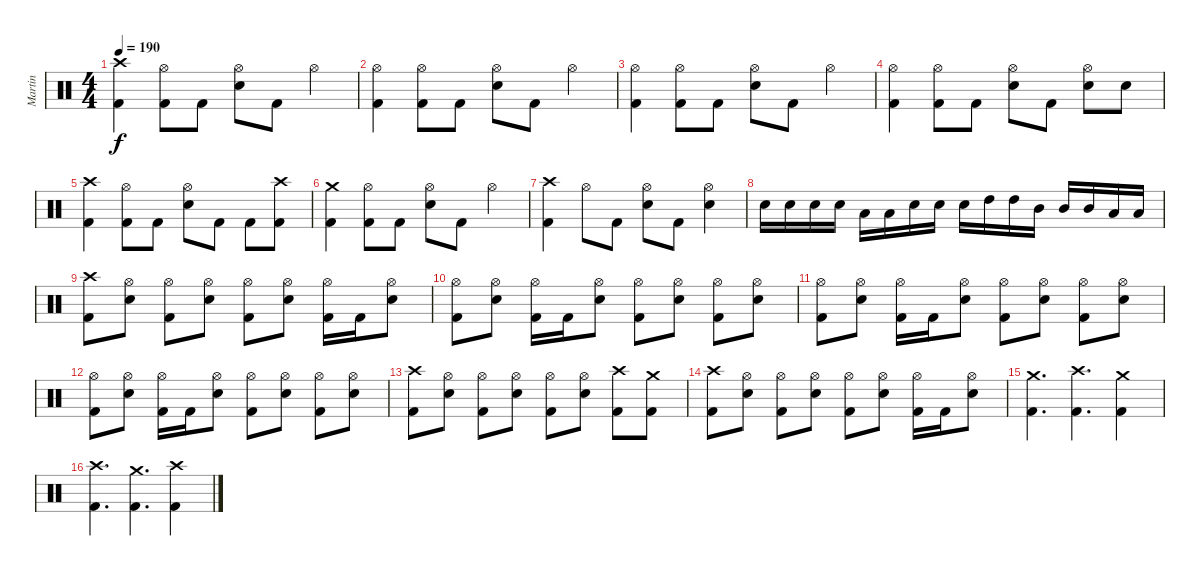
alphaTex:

\track ("Martin" "Martin") {instrument percussion}
\staff {score}
\articulation defaults
\ts (4 4)
\tempo 190
\clef neutral
\ks c
("Crash high (hit)" "Kick (hit) 2").4{dy f} ("Hi-Hat (open)" "Kick (hit) 2").8 "Kick (hit) 2".8 ("Hi-Hat (open)" "Snare (hit) 2").8 "Kick (hit) 2".8 "Hi-Hat (open)".4 |
("Hi-Hat (open)" "Kick (hit) 2").4 ("Hi-Hat (open)" "Kick (hit) 2").8 "Kick (hit) 2".8 ("Hi-Hat (open)" "Snare (hit) 2").8 "Kick (hit) 2".8 "Hi-Hat (open)".4 |
("Hi-Hat (open)" "Kick (hit) 2").4 ("Hi-Hat (open)" "Kick (hit) 2").8 "Kick (hit) 2".8 ("Hi-Hat (open)" "Snare (hit) 2").8 "Kick (hit) 2".8 "Hi-Hat (open)".4 |
("Hi-Hat (open)" "Kick (hit) 2").4 ("Hi-Hat (open)" "Kick (hit) 2").8 "Kick (hit) 2".8 ("Hi-Hat (open)" "Snare (hit) 2").8 "Kick (hit) 2".8 ("Hi-Hat (open)" "Snare (hit) 2").8 "Snare (hit) 2".8 |
("Crash high (hit)" "Kick (hit) 2").4 ("Hi-Hat (open)" "Kick (hit) 2").8 "Kick (hit) 2".8 ("Hi-Hat (open)" "Snare (hit) 2").8 "Kick (hit) 2".8 "Kick (hit) 2".8 ("Crash high (hit)" "Kick (hit) 2").8 |
("Crash medium (hit)" "Kick (hit) 2").4 ("Hi-Hat (open)" "Kick (hit) 2").8 "Kick (hit) 2".8 ("Hi-Hat (open)" "Snare (hit) 2").8 "Kick (hit) 2".8 "Hi-Hat (open)".4 |
("Crash high (hit)" "Kick (hit) 2").4 "Hi-Hat (open)".8 "Kick (hit) 2".8 ("Hi-Hat (open)" "Snare (hit) 2").8 "Kick (hit) 2".8 ("Hi-Hat (open)" "Snare (hit) 2").4 |
"Snare (hit) 2".16 "Snare (hit) 2".16 "Snare (hit) 2".16 "Snare (hit) 2".16 "Low Tom (hit)".16 "Low Tom (hit)".16 "Snare (hit) 2".16 "Snare (hit) 2".16 "Snare (hit) 2".16 "High Tom (hit)".16 "High Tom (hit)".16 "Mid Tom (hit)".16 "Mid Tom (hit)".16 "Mid Tom (hit)".16 "Low Tom (hit)".16 "Low Tom (hit)".16 |
("Crash high (hit)" "Kick (hit) 2").8 ("Hi-Hat (open)" "Snare (hit) 2").8 ("Hi-Hat (open)" "Kick (hit) 2").8 ("Hi-Hat (open)" "Snare (hit) 2").8 ("Hi-Hat (open)" "Kick (hit) 2").8 ("Hi-Hat (open)" "Snare (hit) 2").8 ("Hi-Hat (open)" "Kick (hit) 2").16 "Kick (hit) 2".16 ("Hi-Hat (open)" "Snare (hit) 2").8 |
("Hi-Hat (open)" "Kick (hit) 2").8 ("Hi-Hat (open)" "Snare (hit) 2").8 ("Hi-Hat (open)" "Kick (hit) 2").16 "Kick (hit) 2".16 ("Hi-Hat (open)" "Snare (hit) 2").8 ("Hi-Hat (open)" "Kick (hit) 2").8 ("Hi-Hat (open)" "Snare (hit) 2").8 ("Hi-Hat (open)" "Kick (hit) 2").8 ("Hi-Hat (open)" "Snare (hit) 2").8 |
("Hi-Hat (open)" "Kick (hit) 2").8 ("Hi-Hat (open)" "Snare (hit) 2").8 ("Hi-Hat (open)" "Kick (hit) 2").16 "Kick (hit) 2".16 ("Hi-Hat (open)" "Snare (hit) 2").8 ("Hi-Hat (open)" "Kick (hit) 2").8 ("Hi-Hat (open)" "Snare (hit) 2").8 ("Hi-Hat (open)" "Kick (hit) 2").8 ("Hi-Hat (open)" "Snare (hit) 2").8 |
("Hi-Hat (open)" "Kick (hit) 2").8 ("Hi-Hat (open)" "Snare (hit) 2").8 ("Hi-Hat (open)" "Kick (hit) 2").16 "Kick (hit) 2".16 ("Hi-Hat (open)" "Snare (hit) 2").8 ("Hi-Hat (open)" "Kick (hit) 2").8 ("Hi-Hat (open)" "Snare (hit) 2").8 ("Hi-Hat (open)" "Kick (hit) 2").8 ("Hi-Hat (open)" "Snare (hit) 2").8 |
("Crash high (hit)" "Kick (hit) 2").8 ("Hi-Hat (open)" "Snare (hit) 2").8 ("Hi-Hat (open)" "Kick (hit) 2").8 ("Hi-Hat (open)" "Snare (hit) 2").8 ("Hi-Hat (open)" "Kick (hit) 2").8 ("Hi-Hat (open)" "Snare (hit) 2").8 ("Crash high (hit)" "Kick (hit) 2").8 ("Crash medium (hit)" "Kick (hit) 2").8 |
("Crash high (hit)" "Kick (hit) 2").8 ("Hi-Hat (open)" "Snare (hit) 2").8 ("Hi-Hat (open)" "Kick (hit) 2").8 ("Hi-Hat (open)" "Snare (hit) 2").8 ("Hi-Hat (open)" "Kick (hit) 2").8 ("Hi-Hat (open)" "Snare (hit) 2").8 ("Hi-Hat (open)" "Kick (hit) 2").16 "Kick (hit) 2".16 ("Hi-Hat (open)" "Snare (hit) 2").8 |
("Crash medium (hit)" "Kick (hit) 2").4{d} ("Crash high (hit)" "Kick (hit) 2").4{d} ("Crash medium (hit)" "Kick (hit) 2").4 |
("Crash high (hit)" "Kick (hit) 2").4{d} ("Crash medium (hit)" "Kick (hit) 2").4{d} ("Crash high (hit)" "Kick (hit) 2").4
